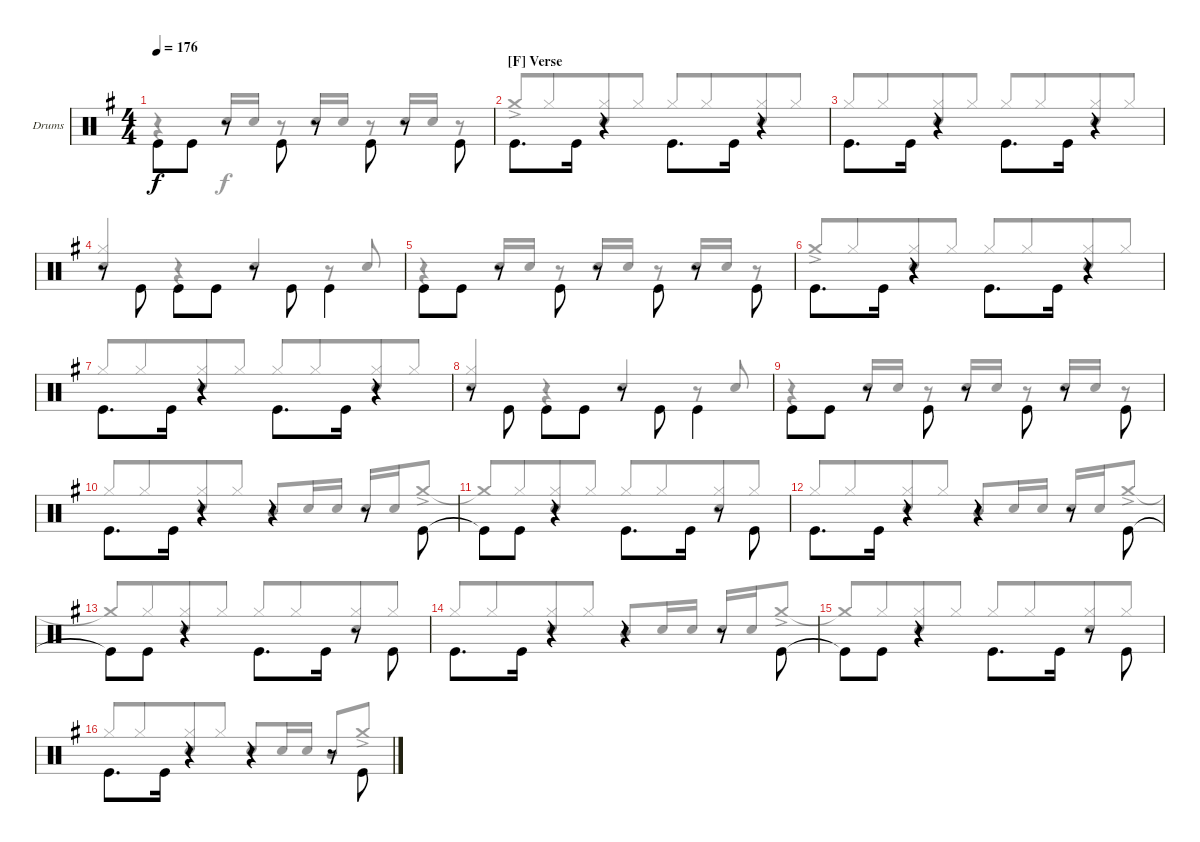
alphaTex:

\bracketExtendMode groupsimilarinstruments
\firstSystemTrackNameOrientation horizontal
\otherSystemsTrackNameOrientation horizontal
\track ("Drums" "Drums") {instrument percussion}
\staff {score}
\articulation defaults
\voice
\ts (4 4)
\tempo 176
\clef neutral
\scale
1.04288
\ks g "Kick (hit)".8{dy f beam invert} "Kick (hit)".8
r.8{beam invert} "Kick (hit)".8{beam invert} r.8{beam invert} "Kick (hit)".8{beam invert} r.8{beam invert} "Kick (hit)".8{beam invert} |
\section ("F" "Verse")
\scale
0.957125 "Kick (hit)".8{d beam invert} "Kick (hit)".16 r.4{beam invert} "Kick (hit)".8{d beam invert} "Kick (hit)".16 r.4{beam invert} |
\scale
1.04288 "Kick (hit)".8{d beam invert} "Kick (hit)".16 r.4{beam invert} "Kick (hit)".8{d beam invert} "Kick (hit)".16 r.4{beam invert} |
\scale
0.957125 r.8 "Kick (hit)".8{beam invert} "Kick (hit)".8{beam invert} "Kick (hit)".8 r.8{beam invert} "Kick (hit)".8{beam invert} "Kick (hit)".4{beam invert} |
\scale
1.04288 "Kick (hit)".8{beam invert} "Kick (hit)".8 r.8{beam invert} "Kick (hit)".8{beam invert} r.8{beam invert} "Kick (hit)".8{beam invert} r.8{beam invert} "Kick (hit)".8{beam invert} |
\scale
0.957125 "Kick (hit)".8{d beam invert} "Kick (hit)".16 r.4{beam invert} "Kick (hit)".8{d beam invert} "Kick (hit)".16 r.4{beam invert} |
\scale
1.04288 "Kick (hit)".8{d beam invert} "Kick (hit)".16 r.4{beam invert} "Kick (hit)".8{d beam invert} "Kick (hit)".16 r.4{beam invert} |
\scale
0.957125 r.8 "Kick (hit)".8{beam invert} "Kick (hit)".8{beam invert} "Kick (hit)".8 r.8{beam invert} "Kick (hit)".8{beam invert} "Kick (hit)".4{beam invert} |
\scale
1.04288 "Kick (hit)".8{beam invert} "Kick (hit)".8 r.8{beam invert} "Kick (hit)".8{beam invert} r.8{beam invert} "Kick (hit)".8{beam invert} r.8{beam invert} "Kick (hit)".8{beam invert} |
\scale
0.957125 "Kick (hit)".8{d beam invert} "Kick (hit)".16 r.4{beam invert} r.4{beam invert} r.8{beam invert} "Kick (hit)".8{beam invert} |
\scale
1.04288 "Kick (hit)"{t}.8{beam invert} "Kick (hit)".8 r.4 "Kick (hit)".8{d beam invert} "Kick (hit)".16 r.8{beam invert} "Kick (hit)".8{beam invert} |
\scale
0.957125 "Kick (hit)".8{d beam invert} "Kick (hit)".16 r.4{beam invert} r.4{beam invert} r.8{beam invert} "Kick (hit)".8{beam invert} |
\scale
1.04288 "Kick (hit)"{t}.8{beam invert} "Kick (hit)".8 r.4 "Kick (hit)".8{d beam invert} "Kick (hit)".16 r.8{beam invert} "Kick (hit)".8{beam invert} |
\scale
0.957125 "Kick (hit)".8{d beam invert} "Kick (hit)".16 r.4{beam invert} r.4{beam invert} r.8{beam invert} "Kick (hit)".8{beam invert} |
\scale
1.04288 "Kick (hit)"{t}.8{beam invert} "Kick (hit)".8 r.4 "Kick (hit)".8{d beam invert} "Kick (hit)".16 r.8{beam invert} "Kick (hit)".8{beam invert} |
\scale
0.957125 "Kick (hit)".8{d beam invert} "Kick (hit)".16 r.4{beam invert} r.4{beam invert} r.8{beam invert} "Kick (hit)".8{beam invert}
\voice
\clef neutral
\ottava regular
\simile none
\scale
1.04288
\ks g
r.4{dy f} "Snare (hit) 2".16{beam invert} "Snare (hit) 2".16 r.8 "Snare (hit) 2".16{beam invert} "Snare (hit) 2".16 r.8 "Snare (hit) 2".16{beam invert} "Snare (hit) 2".16 r.8 |
\scale
0.957125 "Crash medium (hit)"{ac}.8{beam invert beam merge} "Hi-Hat (closed)".8{beam merge} ("Hi-Hat (closed)" "Snare (hit) 2").8{beam merge} "Hi-Hat (closed)".8{beam split} "Hi-Hat (closed)".8{beam invert beam merge} "Hi-Hat (closed)".8{beam merge} ("Hi-Hat (closed)" "Snare (hit) 2").8{beam merge} "Hi-Hat (closed)".8{beam merge} |
\scale
1.04288 "Hi-Hat (closed)".8{beam invert beam merge} "Hi-Hat (closed)".8{beam merge} ("Hi-Hat (closed)" "Snare (hit) 2").8{beam merge} "Hi-Hat (closed)".8{beam split} "Hi-Hat (closed)".8{beam invert beam merge} "Hi-Hat (closed)".8{beam merge} ("Hi-Hat (closed)" "Snare (hit) 2").8{beam merge} "Hi-Hat (closed)".8{beam merge} |
\scale
0.957125 ("Hi-Hat (closed)" "Snare (hit) 2").4{beam invert} r.4 "Snare (hit) 2".4{beam invert} r.8 "Snare (hit) 2".8{beam invert} |
\scale
1.04288 r.4 "Snare (hit) 2".16{beam invert} "Snare (hit) 2".16 r.8 "Snare (hit) 2".16{beam invert} "Snare (hit) 2".16 r.8 "Snare (hit) 2".16{beam invert} "Snare (hit) 2".16 r.8 |
\scale
0.957125 "Crash medium (hit)"{ac}.8{beam invert beam merge} "Hi-Hat (closed)".8{beam merge} ("Hi-Hat (closed)" "Snare (hit) 2").8{beam merge} "Hi-Hat (closed)".8{beam split} "Hi-Hat (closed)".8{beam invert beam merge} "Hi-Hat (closed)".8{beam merge} ("Hi-Hat (closed)" "Snare (hit) 2").8{beam merge} "Hi-Hat (closed)".8{beam merge} |
\scale
1.04288 "Hi-Hat (closed)".8{beam invert beam merge} "Hi-Hat (closed)".8{beam merge} ("Hi-Hat (closed)" "Snare (hit) 2").8{beam merge} "Hi-Hat (closed)".8{beam split} "Hi-Hat (closed)".8{beam invert beam merge} "Hi-Hat (closed)".8{beam merge} ("Hi-Hat (closed)" "Snare (hit) 2").8{beam merge} "Hi-Hat (closed)".8{beam merge} |
\scale
0.957125 ("Hi-Hat (closed)" "Snare (hit) 2").4{beam invert} r.4 "Snare (hit) 2".4{beam invert} r.8 "Snare (hit) 2".8{beam invert} |
\scale
1.04288 r.4 "Snare (hit) 2".16{beam invert} "Snare (hit) 2".16 r.8 "Snare (hit) 2".16{beam invert} "Snare (hit) 2".16 r.8 "Snare (hit) 2".16{beam invert} "Snare (hit) 2".16 r.8 |
\scale
0.957125 "Hi-Hat (closed)".8{beam invert beam merge} "Hi-Hat (closed)".8{beam merge} ("Hi-Hat (closed)" "Snare (hit) 2").8{beam merge} "Hi-Hat (closed)".8{beam split} "Mid Tom (hit)".8{beam invert} "Snare (hit) 2".16 "Snare (hit) 2".16 "Snare (hit) 2".16{beam invert} "Snare (hit) 2".16 "Crash medium (hit)"{ac}.8 |
\scale
1.04288 "Crash medium (hit)"{t}.8{beam invert} "Hi-Hat (closed)".8{beam merge} ("Hi-Hat (closed)" "Snare (hit) 2").8{beam merge} "Hi-Hat (closed)".8{beam split} "Hi-Hat (closed)".8{beam invert beam merge} "Hi-Hat (closed)".8{beam merge} ("Hi-Hat (closed)" "Snare (hit) 2").8{beam merge} "Hi-Hat (closed)".8{beam split} |
\scale
0.957125 "Hi-Hat (closed)".8{beam invert beam merge} "Hi-Hat (closed)".8{beam merge} ("Hi-Hat (closed)" "Snare (hit) 2").8{beam merge} "Hi-Hat (closed)".8{beam split} "Mid Tom (hit)".8{beam invert} "Snare (hit) 2".16 "Snare (hit) 2".16 "Snare (hit) 2".16{beam invert} "Snare (hit) 2".16 "Crash medium (hit)"{ac}.8 |
\scale
1.04288 "Crash medium (hit)"{t}.8{beam invert} "Hi-Hat (closed)".8{beam merge} ("Hi-Hat (closed)" "Snare (hit) 2").8{beam merge} "Hi-Hat (closed)".8{beam split} "Hi-Hat (closed)".8{beam invert beam merge} "Hi-Hat (closed)".8{beam merge} ("Hi-Hat (closed)" "Snare (hit) 2").8{beam merge} "Hi-Hat (closed)".8{beam split} |
\scale
0.957125 "Hi-Hat (closed)".8{beam invert beam merge} "Hi-Hat (closed)".8{beam merge} ("Hi-Hat (closed)" "Snare (hit) 2").8{beam merge} "Hi-Hat (closed)".8{beam split} "Mid Tom (hit)".8{beam invert} "Snare (hit) 2".16 "Snare (hit) 2".16 "Snare (hit) 2".16{beam invert} "Snare (hit) 2".16 "Crash medium (hit)"{ac}.8 |
\scale
1.04288 "Crash medium (hit)"{t}.8{beam invert} "Hi-Hat (closed)".8{beam merge} ("Hi-Hat (closed)" "Snare (hit) 2").8{beam merge} "Hi-Hat (closed)".8{beam split} "Hi-Hat (closed)".8{beam invert beam merge} "Hi-Hat (closed)".8{beam merge} ("Hi-Hat (closed)" "Snare (hit) 2").8{beam merge} "Hi-Hat (closed)".8{beam split} |
\scale
0.957125 "Hi-Hat (closed)".8{beam invert beam merge} "Hi-Hat (closed)".8{beam merge} ("Hi-Hat (closed)" "Snare (hit) 2").8{beam merge} "Hi-Hat (closed)".8{beam split} "Snare (hit) 2".8{beam invert} "Snare (hit) 2".16 "Snare (hit) 2".16 "Mid Tom (hit)".8{beam invert} "Crash medium (hit)"{ac}.8
